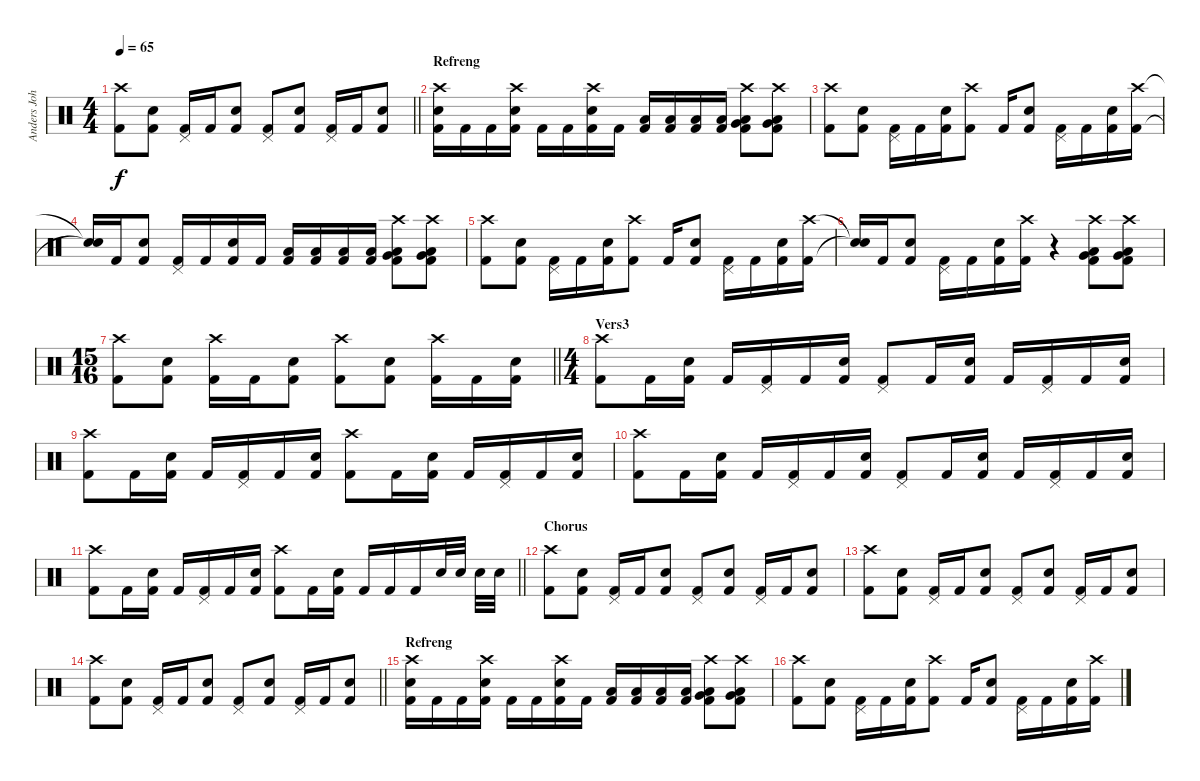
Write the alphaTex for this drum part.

\track ("Anders Johansson" "Anders Joh") {instrument percussion}
\staff {score}
\articulation defaults
\ts (4 4)
\tempo 65
\clef neutral
\barLineRight lightlight
\ks c
("Crash high (hit)" "Kick (hit) 2").8{dy f} ("Electric Snare (hit)" "Kick (hit) 2").8 ("Pedal Hi-Hat (hit)" "Kick (hit) 2").16 "Kick (hit) 2".16 ("Electric Snare (hit)" "Kick (hit) 2").8 ("Pedal Hi-Hat (hit)" "Kick (hit) 2").8 ("Electric Snare (hit)" "Kick (hit) 2").8 ("Pedal Hi-Hat (hit)" "Kick (hit) 2").16 "Kick (hit) 2".16 ("Electric Snare (hit)" "Kick (hit) 2").8 |
\section ("" "Refreng")
("Crash high (hit)" "Electric Snare (hit)" "Kick (hit) 2").16 "Kick (hit) 2".16 "Kick (hit) 2".16 ("Crash high (hit)" "Electric Snare (hit)" "Kick (hit) 2").16 "Kick (hit) 2".16 "Kick (hit) 2".16 ("Crash high (hit)" "Electric Snare (hit)" "Kick (hit) 2").16 "Kick (hit) 2".16 ("Low Floor Tom (hit)" "Kick (hit) 2").16 ("Low Floor Tom (hit)" "Kick (hit) 2").16 ("Low Floor Tom (hit)" "Kick (hit) 2").16 ("Low Floor Tom (hit)" "Kick (hit) 2").16 ("Crash high (hit)" "Very Low Tom (hit)" "Low Floor Tom (hit)" "Kick (hit) 2").8 ("Crash high (hit)" "Very Low Tom (hit)" "Low Floor Tom (hit)" "Kick (hit) 2").8 |
("Crash high (hit)" "Kick (hit) 2").8 ("Electric Snare (hit)" "Kick (hit) 2").8 ("Pedal Hi-Hat (hit)" "Kick (hit) 2").16 "Kick (hit) 2".16 ("Electric Snare (hit)" "Kick (hit) 2").16 ("Crash high (hit)" "Kick (hit) 2").8 "Kick (hit) 2".16 ("Electric Snare (hit)" "Kick (hit) 2").8 ("Pedal Hi-Hat (hit)" "Kick (hit) 2").16 "Kick (hit) 2".16 ("Electric Snare (hit)" "Kick (hit) 2").16 ("Crash high (hit)" "Kick (hit) 2").16 |
("Snare (hit)"{t} "Snare (hit)"{t}).16 "Kick (hit) 2".16 ("Electric Snare (hit)" "Kick (hit) 2").8 ("Pedal Hi-Hat (hit)" "Kick (hit) 2").16 "Kick (hit) 2".16 ("Electric Snare (hit)" "Kick (hit) 2").16 "Kick (hit) 2".16 ("Low Floor Tom (hit)" "Kick (hit) 2").16 ("Low Floor Tom (hit)" "Kick (hit) 2").16 ("Low Floor Tom (hit)" "Kick (hit) 2").16 ("Low Floor Tom (hit)" "Kick (hit) 2").16 ("Crash high (hit)" "Very Low Tom (hit)" "Low Floor Tom (hit)" "Kick (hit) 2").8 ("Crash high (hit)" "Very Low Tom (hit)" "Low Floor Tom (hit)" "Kick (hit) 2").8 |
("Crash high (hit)" "Kick (hit) 2").8 ("Electric Snare (hit)" "Kick (hit) 2").8 ("Pedal Hi-Hat (hit)" "Kick (hit) 2").16 "Kick (hit) 2".16 ("Electric Snare (hit)" "Kick (hit) 2").16 ("Crash high (hit)" "Kick (hit) 2").8 "Kick (hit) 2".16 ("Electric Snare (hit)" "Kick (hit) 2").8 ("Pedal Hi-Hat (hit)" "Kick (hit) 2").16 "Kick (hit) 2".16 ("Electric Snare (hit)" "Kick (hit) 2").16 ("Crash high (hit)" "Kick (hit) 2").16 |
("Snare (hit)"{t} "Snare (hit)"{t}).16 "Kick (hit) 2".16 ("Electric Snare (hit)" "Kick (hit) 2").8 ("Pedal Hi-Hat (hit)" "Kick (hit) 2").16 "Kick (hit) 2".16 ("Electric Snare (hit)" "Kick (hit) 2").16 ("Crash high (hit)" "Kick (hit) 2").16 r.4 ("Crash high (hit)" "Very Low Tom (hit)" "Low Floor Tom (hit)" "Kick (hit) 2").8 ("Crash high (hit)" "Very Low Tom (hit)" "Low Floor Tom (hit)" "Kick (hit) 2").8 |
\ts (15 16)
\barLineRight lightlight
("Crash high (hit)" "Kick (hit) 2").8 ("Electric Snare (hit)" "Kick (hit) 2").8 ("Crash high (hit)" "Kick (hit) 2").16 "Kick (hit) 2".16 ("Electric Snare (hit)" "Kick (hit) 2").8 ("Crash high (hit)" "Kick (hit) 2").8 ("Electric Snare (hit)" "Kick (hit) 2").8 ("Crash high (hit)" "Kick (hit) 2").16 "Kick (hit) 2".16 ("Electric Snare (hit)" "Kick (hit) 2").16 |
\ts (4 4)
\section ("" "Vers3")
("Crash high (hit)" "Kick (hit) 2").8 "Kick (hit) 2".16 ("Electric Snare (hit)" "Kick (hit) 2").16 "Kick (hit) 2".16 ("Pedal Hi-Hat (hit)" "Kick (hit) 2").16 "Kick (hit) 2".16 ("Electric Snare (hit)" "Kick (hit) 2").16 ("Pedal Hi-Hat (hit)" "Kick (hit) 2").8 "Kick (hit) 2".16 ("Electric Snare (hit)" "Kick (hit) 2").16 "Kick (hit) 2".16 ("Pedal Hi-Hat (hit)" "Kick (hit) 2").16 "Kick (hit) 2".16 ("Electric Snare (hit)" "Kick (hit) 2").16 |
("Crash high (hit)" "Kick (hit) 2").8 "Kick (hit) 2".16 ("Electric Snare (hit)" "Kick (hit) 2").16 "Kick (hit) 2".16 ("Pedal Hi-Hat (hit)" "Kick (hit) 2").16 "Kick (hit) 2".16 ("Electric Snare (hit)" "Kick (hit) 2").16 ("Crash high (hit)" "Kick (hit) 2").8 "Kick (hit) 2".16 ("Electric Snare (hit)" "Kick (hit) 2").16 "Kick (hit) 2".16 ("Pedal Hi-Hat (hit)" "Kick (hit) 2").16 "Kick (hit) 2".16 ("Electric Snare (hit)" "Kick (hit) 2").16 |
("Crash high (hit)" "Kick (hit) 2").8 "Kick (hit) 2".16 ("Electric Snare (hit)" "Kick (hit) 2").16 "Kick (hit) 2".16 ("Pedal Hi-Hat (hit)" "Kick (hit) 2").16 "Kick (hit) 2".16 ("Electric Snare (hit)" "Kick (hit) 2").16 ("Pedal Hi-Hat (hit)" "Kick (hit) 2").8 "Kick (hit) 2".16 ("Electric Snare (hit)" "Kick (hit) 2").16 "Kick (hit) 2".16 ("Pedal Hi-Hat (hit)" "Kick (hit) 2").16 "Kick (hit) 2".16 ("Electric Snare (hit)" "Kick (hit) 2").16 |
\barLineRight lightlight
("Crash high (hit)" "Kick (hit) 2").8 "Kick (hit) 2".16 ("Electric Snare (hit)" "Kick (hit) 2").16 "Kick (hit) 2".16 ("Pedal Hi-Hat (hit)" "Kick (hit) 2").16 "Kick (hit) 2".16 ("Electric Snare (hit)" "Kick (hit) 2").16 ("Crash high (hit)" "Kick (hit) 2").8 "Kick (hit) 2".16 ("Electric Snare (hit)" "Kick (hit) 2").16 "Kick (hit) 2".16 "Kick (hit) 2".16 "Kick (hit) 2".16 "Electric Snare (hit)".32 "Electric Snare (hit)".32 "Electric Snare (hit)".32 "Electric Snare (hit)".32 |
\section ("" "Chorus")
("Crash high (hit)" "Kick (hit) 2").8 ("Electric Snare (hit)" "Kick (hit) 2").8 ("Pedal Hi-Hat (hit)" "Kick (hit) 2").16 "Kick (hit) 2".16 ("Electric Snare (hit)" "Kick (hit) 2").8 ("Pedal Hi-Hat (hit)" "Kick (hit) 2").8 ("Electric Snare (hit)" "Kick (hit) 2").8 ("Pedal Hi-Hat (hit)" "Kick (hit) 2").16 "Kick (hit) 2".16 ("Electric Snare (hit)" "Kick (hit) 2").8 |
("Crash high (hit)" "Kick (hit) 2").8 ("Electric Snare (hit)" "Kick (hit) 2").8 ("Pedal Hi-Hat (hit)" "Kick (hit) 2").16 "Kick (hit) 2".16 ("Electric Snare (hit)" "Kick (hit) 2").8 ("Pedal Hi-Hat (hit)" "Kick (hit) 2").8 ("Electric Snare (hit)" "Kick (hit) 2").8 ("Pedal Hi-Hat (hit)" "Kick (hit) 2").16 "Kick (hit) 2".16 ("Electric Snare (hit)" "Kick (hit) 2").8 |
\barLineRight lightlight
("Crash high (hit)" "Kick (hit) 2").8 ("Electric Snare (hit)" "Kick (hit) 2").8 ("Pedal Hi-Hat (hit)" "Kick (hit) 2").16 "Kick (hit) 2".16 ("Electric Snare (hit)" "Kick (hit) 2").8 ("Pedal Hi-Hat (hit)" "Kick (hit) 2").8 ("Electric Snare (hit)" "Kick (hit) 2").8 ("Pedal Hi-Hat (hit)" "Kick (hit) 2").16 "Kick (hit) 2".16 ("Electric Snare (hit)" "Kick (hit) 2").8 |
\section ("" "Refreng")
("Crash high (hit)" "Electric Snare (hit)" "Kick (hit) 2").16 "Kick (hit) 2".16 "Kick (hit) 2".16 ("Crash high (hit)" "Electric Snare (hit)" "Kick (hit) 2").16 "Kick (hit) 2".16 "Kick (hit) 2".16 ("Crash high (hit)" "Electric Snare (hit)" "Kick (hit) 2").16 "Kick (hit) 2".16 ("Low Floor Tom (hit)" "Kick (hit) 2").16 ("Low Floor Tom (hit)" "Kick (hit) 2").16 ("Low Floor Tom (hit)" "Kick (hit) 2").16 ("Low Floor Tom (hit)" "Kick (hit) 2").16 ("Crash high (hit)" "Very Low Tom (hit)" "Low Floor Tom (hit)" "Kick (hit) 2").8 ("Crash high (hit)" "Very Low Tom (hit)" "Low Floor Tom (hit)" "Kick (hit) 2").8 |
("Crash high (hit)" "Kick (hit) 2").8 ("Electric Snare (hit)" "Kick (hit) 2").8 ("Pedal Hi-Hat (hit)" "Kick (hit) 2").16 "Kick (hit) 2".16 ("Electric Snare (hit)" "Kick (hit) 2").16 ("Crash high (hit)" "Kick (hit) 2").8 "Kick (hit) 2".16 ("Electric Snare (hit)" "Kick (hit) 2").8 ("Pedal Hi-Hat (hit)" "Kick (hit) 2").16 "Kick (hit) 2".16 ("Electric Snare (hit)" "Kick (hit) 2").16 ("Crash high (hit)" "Kick (hit) 2").16
